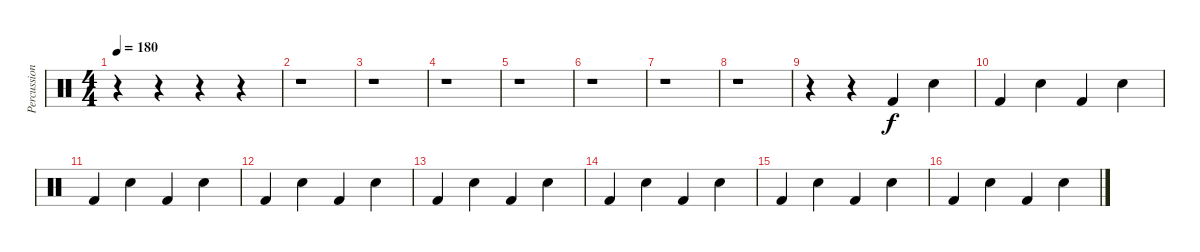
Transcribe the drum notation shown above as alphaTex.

\track ("Percussion" "Percussion") {instrument percussion}
\staff {score}
\articulation defaults
\ts (4 4)
\tempo 180
\clef neutral
\ks c
r.4{dy f} r.4 r.4 r.4 |
r.1 |
r.1 |
r.1 |
r.1 |
r.1 |
r.1 |
r.1 |
r.4 r.4 "Kick (hit) 2".4 "Snare (hit) 2".4 |
"Kick (hit) 2".4 "Snare (hit) 2".4 "Kick (hit) 2".4 "Snare (hit) 2".4 |
"Kick (hit) 2".4 "Snare (hit) 2".4 "Kick (hit) 2".4 "Snare (hit) 2".4 |
"Kick (hit) 2".4 "Snare (hit) 2".4 "Kick (hit) 2".4 "Snare (hit) 2".4 |
"Kick (hit) 2".4 "Snare (hit) 2".4 "Kick (hit) 2".4 "Snare (hit) 2".4 |
"Kick (hit) 2".4 "Snare (hit) 2".4 "Kick (hit) 2".4 "Snare (hit) 2".4 |
"Kick (hit) 2".4 "Snare (hit) 2".4 "Kick (hit) 2".4 "Snare (hit) 2".4 |
"Kick (hit) 2".4 "Snare (hit) 2".4 "Kick (hit) 2".4 "Snare (hit) 2".4
